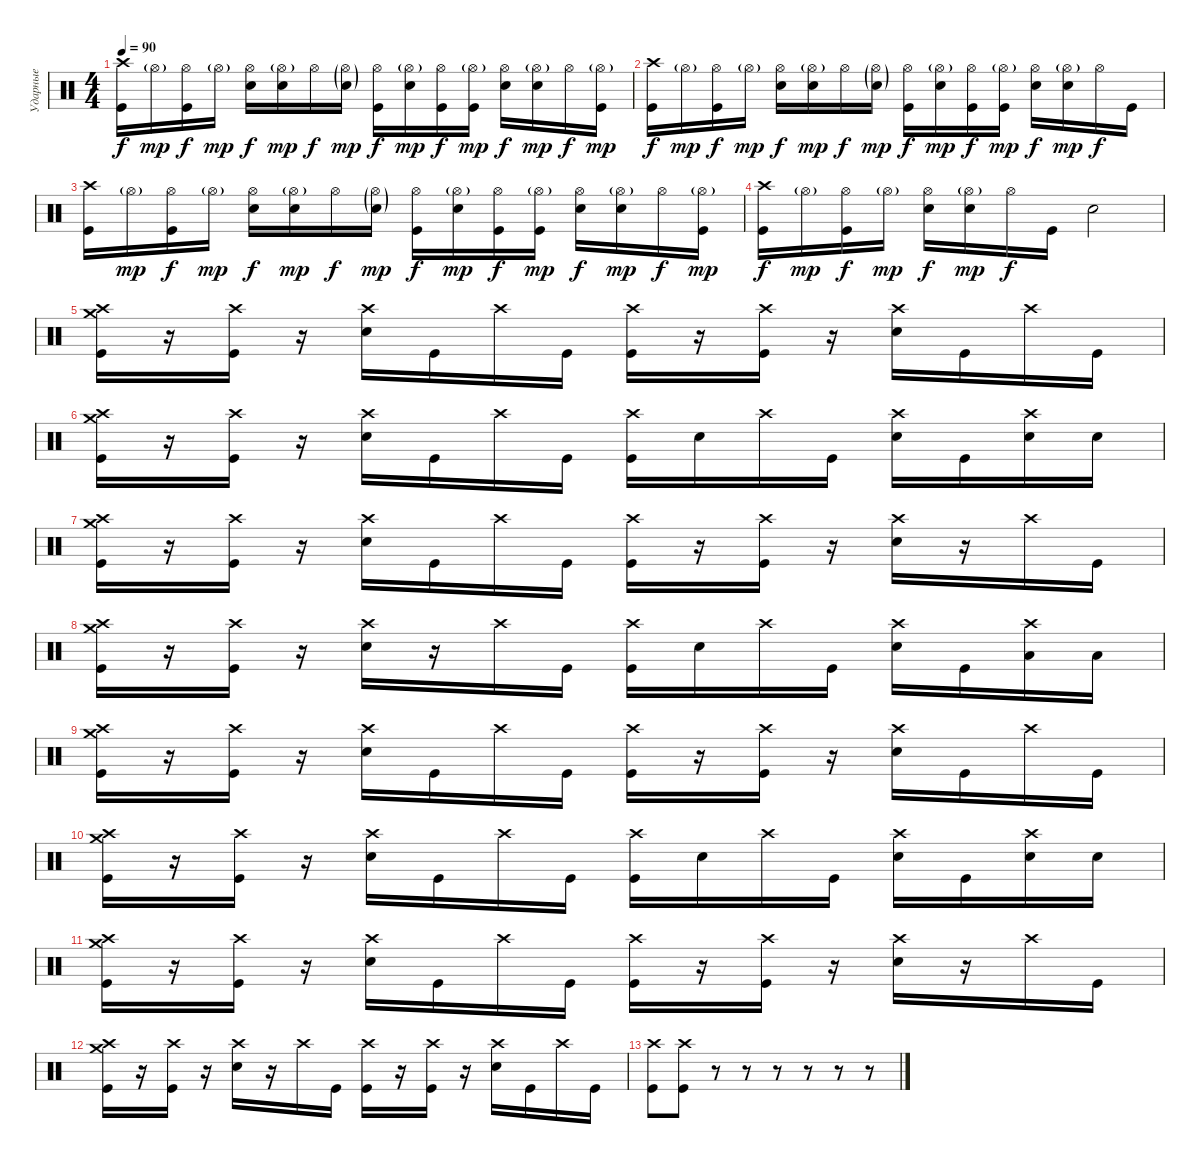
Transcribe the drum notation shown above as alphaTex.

\track ("Ударные" "Ударные") {instrument percussion}
\staff {score}
\articulation defaults
\ts (4 4)
\tempo 90
\clef neutral
\ks c
("Crash high (hit)" "Kick (hit)").16{dy f} "Hi-Hat (open)"{g}.16{dy mp} ("Hi-Hat (open)" "Kick (hit)").16{dy f} "Hi-Hat (open)"{g}.16{dy mp} ("Hi-Hat (open)" "Snare (hit) 2").16{dy f} ("Snare (hit) 2" "Hi-Hat (open)"{g}).16{dy mp} "Hi-Hat (open)".16{dy f} ("Snare (hit) 2"{g} "Hi-Hat (open)"{g}).16{dy mp} ("Hi-Hat (open)" "Kick (hit)").16{dy f} ("Hi-Hat (open)"{g} "Snare (hit) 2").16{dy mp} ("Hi-Hat (open)" "Kick (hit)").16{dy f} ("Kick (hit)" "Hi-Hat (open)"{g}).16{dy mp} ("Hi-Hat (open)" "Snare (hit) 2").16{dy f} ("Snare (hit) 2" "Hi-Hat (open)"{g}).16{dy mp} "Hi-Hat (open)".16{dy f} ("Kick (hit)" "Hi-Hat (open)"{g}).16{dy mp} |
("Crash high (hit)" "Kick (hit)").16{dy f} "Hi-Hat (open)"{g}.16{dy mp} ("Hi-Hat (open)" "Kick (hit)").16{dy f} "Hi-Hat (open)"{g}.16{dy mp} ("Hi-Hat (open)" "Snare (hit) 2").16{dy f} ("Snare (hit) 2" "Hi-Hat (open)"{g}).16{dy mp} "Hi-Hat (open)".16{dy f} ("Snare (hit) 2"{g} "Hi-Hat (open)"{g}).16{dy mp} ("Hi-Hat (open)" "Kick (hit)").16{dy f} ("Hi-Hat (open)"{g} "Snare (hit) 2").16{dy mp} ("Hi-Hat (open)" "Kick (hit)").16{dy f} ("Kick (hit)" "Hi-Hat (open)"{g}).16{dy mp} ("Hi-Hat (open)" "Snare (hit) 2").16{dy f} ("Snare (hit) 2" "Hi-Hat (open)"{g}).16{dy mp} "Hi-Hat (open)".16{dy f} "Kick (hit)".16 |
("Crash high (hit)" "Kick (hit)").16 "Hi-Hat (open)"{g}.16{dy mp} ("Hi-Hat (open)" "Kick (hit)").16{dy f} "Hi-Hat (open)"{g}.16{dy mp} ("Hi-Hat (open)" "Snare (hit) 2").16{dy f} ("Snare (hit) 2" "Hi-Hat (open)"{g}).16{dy mp} "Hi-Hat (open)".16{dy f} ("Snare (hit) 2"{g} "Hi-Hat (open)"{g}).16{dy mp} ("Hi-Hat (open)" "Kick (hit)").16{dy f} ("Hi-Hat (open)"{g} "Snare (hit) 2").16{dy mp} ("Hi-Hat (open)" "Kick (hit)").16{dy f} ("Kick (hit)" "Hi-Hat (open)"{g}).16{dy mp} ("Hi-Hat (open)" "Snare (hit) 2").16{dy f} ("Snare (hit) 2" "Hi-Hat (open)"{g}).16{dy mp} "Hi-Hat (open)".16{dy f} ("Kick (hit)" "Hi-Hat (open)"{g}).16{dy mp} |
("Crash high (hit)" "Kick (hit)").16{dy f} "Hi-Hat (open)"{g}.16{dy mp} ("Hi-Hat (open)" "Kick (hit)").16{dy f} "Hi-Hat (open)"{g}.16{dy mp} ("Hi-Hat (open)" "Snare (hit) 2").16{dy f} ("Snare (hit) 2" "Hi-Hat (open)"{g}).16{dy mp} "Hi-Hat (open)".16{dy f} "Kick (hit)".16 "Snare (hit) 2".2 |
("Crash high (hit)" "Kick (hit)" "Crash medium (hit)").16 r.16 ("Kick (hit)" "Crash high (hit)").16 r.16 ("Crash high (hit)" "Snare (hit) 2").16 "Kick (hit)".16 "Crash high (hit)".16 "Kick (hit)".16 ("Crash high (hit)" "Kick (hit)").16 r.16 ("Crash high (hit)" "Kick (hit)").16 r.16 ("Crash high (hit)" "Snare (hit) 2").16 "Kick (hit)".16 "Crash high (hit)".16 "Kick (hit)".16 |
("Crash high (hit)" "Kick (hit)" "Crash medium (hit)").16 r.16 ("Kick (hit)" "Crash high (hit)").16 r.16 ("Crash high (hit)" "Snare (hit) 2").16 "Kick (hit)".16 "Crash high (hit)".16 "Kick (hit)".16 ("Crash high (hit)" "Kick (hit)").16 "Snare (hit) 2".16 "Crash high (hit)".16 "Kick (hit)".16 ("Crash high (hit)" "Snare (hit) 2").16 "Kick (hit)".16 ("Crash high (hit)" "Snare (hit) 2").16 "Snare (hit) 2".16 |
("Crash high (hit)" "Kick (hit)" "Crash medium (hit)").16 r.16 ("Kick (hit)" "Crash high (hit)").16 r.16 ("Crash high (hit)" "Snare (hit) 2").16 "Kick (hit)".16 "Crash high (hit)".16 "Kick (hit)".16 ("Crash high (hit)" "Kick (hit)").16 r.16 ("Crash high (hit)" "Kick (hit)").16 r.16 ("Crash high (hit)" "Snare (hit) 2").16 r.16 "Crash high (hit)".16 "Kick (hit)".16 |
("Crash high (hit)" "Kick (hit)" "Crash medium (hit)").16 r.16 ("Kick (hit)" "Crash high (hit)").16 r.16 ("Crash high (hit)" "Snare (hit) 2").16 r.16 "Crash high (hit)".16 "Kick (hit)".16 ("Crash high (hit)" "Kick (hit)").16 "Snare (hit) 2".16 "Crash high (hit)".16 "Kick (hit)".16 ("Crash high (hit)" "Snare (hit) 2").16 "Kick (hit)".16 ("Low Floor Tom (hit)" "Crash high (hit)").16 "Low Floor Tom (hit)".16 |
("Crash high (hit)" "Kick (hit)" "Crash medium (hit)").16 r.16 ("Kick (hit)" "Crash high (hit)").16 r.16 ("Crash high (hit)" "Snare (hit) 2").16 "Kick (hit)".16 "Crash high (hit)".16 "Kick (hit)".16 ("Crash high (hit)" "Kick (hit)").16 r.16 ("Crash high (hit)" "Kick (hit)").16 r.16 ("Crash high (hit)" "Snare (hit) 2").16 "Kick (hit)".16 "Crash high (hit)".16 "Kick (hit)".16 |
("Crash high (hit)" "Kick (hit)" "Crash medium (hit)").16 r.16 ("Kick (hit)" "Crash high (hit)").16 r.16 ("Crash high (hit)" "Snare (hit) 2").16 "Kick (hit)".16 "Crash high (hit)".16 "Kick (hit)".16 ("Crash high (hit)" "Kick (hit)").16 "Snare (hit) 2".16 "Crash high (hit)".16 "Kick (hit)".16 ("Crash high (hit)" "Snare (hit) 2").16 "Kick (hit)".16 ("Crash high (hit)" "Snare (hit) 2").16 "Snare (hit) 2".16 |
("Crash high (hit)" "Kick (hit)" "Crash medium (hit)").16 r.16 ("Kick (hit)" "Crash high (hit)").16 r.16 ("Crash high (hit)" "Snare (hit) 2").16 "Kick (hit)".16 "Crash high (hit)".16 "Kick (hit)".16 ("Crash high (hit)" "Kick (hit)").16 r.16 ("Crash high (hit)" "Kick (hit)").16 r.16 ("Crash high (hit)" "Snare (hit) 2").16 r.16 "Crash high (hit)".16 "Kick (hit)".16 |
("Crash high (hit)" "Kick (hit)" "Crash medium (hit)").16 r.16 ("Kick (hit)" "Crash high (hit)").16 r.16 ("Crash high (hit)" "Snare (hit) 2").16 r.16 "Crash high (hit)".16 "Kick (hit)".16 ("Crash high (hit)" "Kick (hit)").16 r.16 ("Kick (hit)" "Crash high (hit)").16 r.16 ("Crash high (hit)" "Snare (hit) 2").16 "Kick (hit)".16 "Crash high (hit)".16 "Kick (hit)".16 |
("Crash high (hit)" "Kick (hit)").8 ("Crash high (hit)" "Kick (hit)").8 r.8 r.8 r.8 r.8 r.8 r.8
